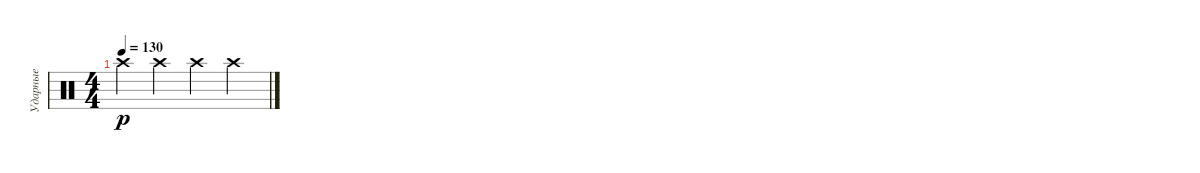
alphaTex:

\track ("Ударные" "Ударные") {instrument percussion}
\staff {score}
\articulation defaults
\ts (4 4)
\tempo 130
\clef neutral
\ks c "Crash high (hit)".4{dy p} "Crash high (hit)".4 "Crash high (hit)".4 "Crash high (hit)".4
